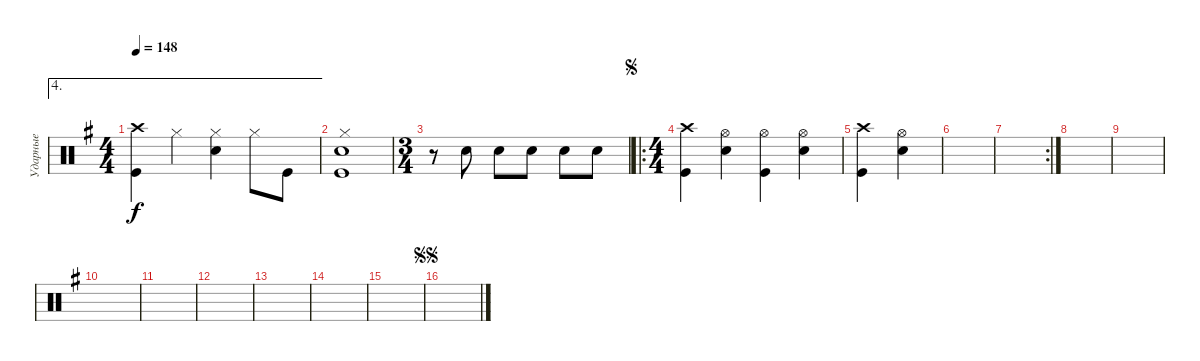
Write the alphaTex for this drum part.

\track ("Ударные" "Ударные") {instrument percussion}
\staff {score}
\articulation defaults
\ae 4
\ts (4 4)
\tempo 148
\clef neutral
\ks g
("Kick (hit)" "Crash high (hit)").4{dy f} "Hi-Hat (closed)".4 ("Snare (hit) 2" "Hi-Hat (closed)").4 "Hi-Hat (closed)".8 "Kick (hit)".8 |
("Kick (hit)" "Snare (hit) 2" "Hi-Hat (closed)").1 |
\ts (3 4)
r.8 "Snare (hit) 2".8 "Snare (hit) 2".8 "Snare (hit) 2".8 "Snare (hit) 2".8 "Snare (hit) 2".8 |
\ro
\ts (4 4)
\jump segno
("Kick (hit)" "Crash high (hit)").4 ("Hi-Hat (open)" "Snare (hit) 2").4 ("Kick (hit)" "Hi-Hat (open)").4 ("Hi-Hat (open)" "Snare (hit) 2").4 |
("Kick (hit)" "Crash high (hit)").4 ("Snare (hit) 2" "Hi-Hat (open)").4 |
|
\rc 2
|
|
|
|
|
|
|
|
|
\jump segnosegno
